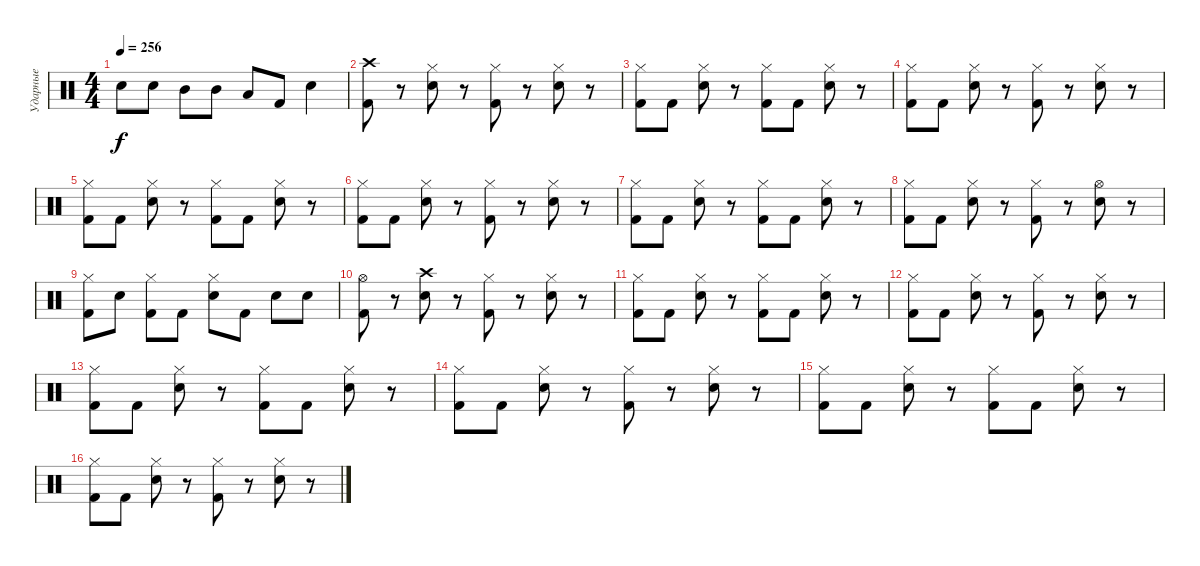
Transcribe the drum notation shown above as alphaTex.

\track ("Ударные" "Ударные") {instrument percussion}
\staff {score}
\articulation defaults
\ts (4 4)
\tempo 256
\clef neutral
\ks c "Snare (hit) 2".8{dy f} "Snare (hit) 2".8 "Mid Tom (hit)".8 "Mid Tom (hit)".8 "Low Tom (hit)".8 "Kick (hit) 2".8 "Electric Snare (hit)".4
|
("Crash high (hit)" "Kick (hit) 2").8 r.8 ("Hi-Hat (closed)" "Electric Snare (hit)").8 r.8 ("Hi-Hat (closed)" "Kick (hit) 2").8 r.8 ("Hi-Hat (closed)" "Electric Snare (hit)").8 r.8 |
("Hi-Hat (closed)" "Kick (hit) 2").8 "Kick (hit) 2".8 ("Hi-Hat (closed)" "Electric Snare (hit)").8 r.8 ("Hi-Hat (closed)" "Kick (hit) 2").8 "Kick (hit) 2".8 ("Hi-Hat (closed)" "Electric Snare (hit)").8 r.8 |
("Hi-Hat (closed)" "Kick (hit) 2").8 "Kick (hit) 2".8 ("Hi-Hat (closed)" "Electric Snare (hit)").8 r.8 ("Hi-Hat (closed)" "Kick (hit) 2").8 r.8 ("Hi-Hat (closed)" "Electric Snare (hit)").8 r.8 |
("Hi-Hat (closed)" "Kick (hit) 2").8 "Kick (hit) 2".8 ("Hi-Hat (closed)" "Electric Snare (hit)").8 r.8 ("Hi-Hat (closed)" "Kick (hit) 2").8 "Kick (hit) 2".8 ("Hi-Hat (closed)" "Electric Snare (hit)").8 r.8 |
("Hi-Hat (closed)" "Kick (hit) 2").8 "Kick (hit) 2".8 ("Hi-Hat (closed)" "Electric Snare (hit)").8 r.8 ("Hi-Hat (closed)" "Kick (hit) 2").8 r.8 ("Hi-Hat (closed)" "Electric Snare (hit)").8 r.8 |
("Hi-Hat (closed)" "Kick (hit) 2").8 "Kick (hit) 2".8 ("Hi-Hat (closed)" "Electric Snare (hit)").8 r.8 ("Hi-Hat (closed)" "Kick (hit) 2").8 "Kick (hit) 2".8 ("Hi-Hat (closed)" "Electric Snare (hit)").8 r.8 |
("Hi-Hat (closed)" "Kick (hit) 2").8 "Kick (hit) 2".8 ("Hi-Hat (closed)" "Electric Snare (hit)").8 r.8 ("Hi-Hat (closed)" "Kick (hit) 2").8 r.8 ("Hi-Hat (open)" "Electric Snare (hit)").8 r.8 |
("Hi-Hat (closed)" "Kick (hit) 2").8 "Electric Snare (hit)".8 ("Hi-Hat (closed)" "Kick (hit) 2").8 "Kick (hit) 2".8 ("Hi-Hat (closed)" "Electric Snare (hit)").8 "Kick (hit) 2".8 "Electric Snare (hit)".8 "Electric Snare (hit)".8 |
("Hi-Hat (open)" "Kick (hit) 2").8 r.8 ("Crash high (hit)" "Electric Snare (hit)").8 r.8 ("Hi-Hat (closed)" "Kick (hit) 2").8 r.8 ("Hi-Hat (closed)" "Electric Snare (hit)").8 r.8 |
("Hi-Hat (closed)" "Kick (hit) 2").8 "Kick (hit) 2".8 ("Hi-Hat (closed)" "Electric Snare (hit)").8 r.8 ("Hi-Hat (closed)" "Kick (hit) 2").8 "Kick (hit) 2".8 ("Hi-Hat (closed)" "Electric Snare (hit)").8 r.8 |
("Hi-Hat (closed)" "Kick (hit) 2").8 "Kick (hit) 2".8 ("Hi-Hat (closed)" "Electric Snare (hit)").8 r.8 ("Hi-Hat (closed)" "Kick (hit) 2").8 r.8 ("Hi-Hat (closed)" "Electric Snare (hit)").8 r.8 |
("Hi-Hat (closed)" "Kick (hit) 2").8 "Kick (hit) 2".8 ("Hi-Hat (closed)" "Electric Snare (hit)").8 r.8 ("Hi-Hat (closed)" "Kick (hit) 2").8 "Kick (hit) 2".8 ("Hi-Hat (closed)" "Electric Snare (hit)").8 r.8 |
("Hi-Hat (closed)" "Kick (hit) 2").8 "Kick (hit) 2".8 ("Hi-Hat (closed)" "Electric Snare (hit)").8 r.8 ("Hi-Hat (closed)" "Kick (hit) 2").8 r.8 ("Hi-Hat (closed)" "Electric Snare (hit)").8 r.8 |
("Hi-Hat (closed)" "Kick (hit) 2").8 "Kick (hit) 2".8 ("Hi-Hat (closed)" "Electric Snare (hit)").8 r.8 ("Hi-Hat (closed)" "Kick (hit) 2").8 "Kick (hit) 2".8 ("Hi-Hat (closed)" "Electric Snare (hit)").8 r.8 |
("Hi-Hat (closed)" "Kick (hit) 2").8 "Kick (hit) 2".8 ("Hi-Hat (closed)" "Electric Snare (hit)").8 r.8 ("Hi-Hat (closed)" "Kick (hit) 2").8 r.8 ("Hi-Hat (closed)" "Electric Snare (hit)").8 r.8
